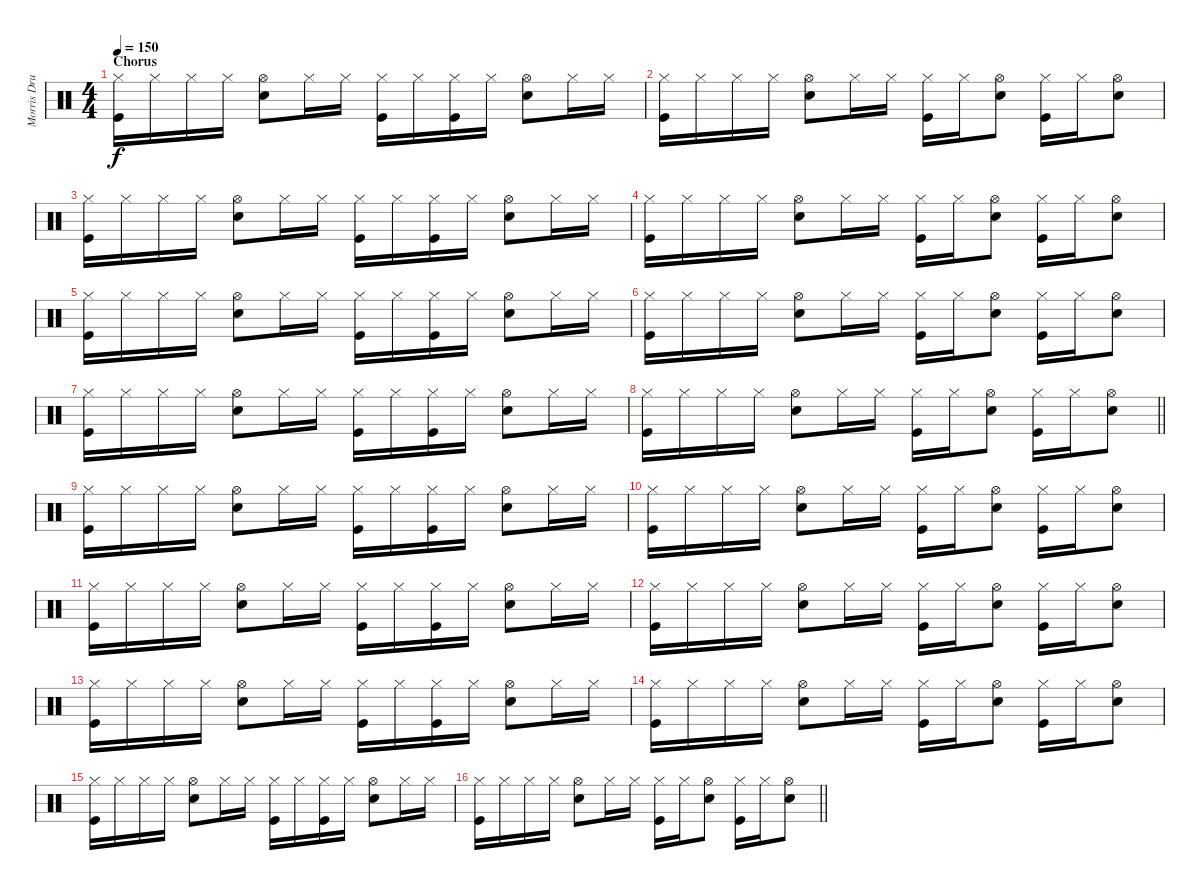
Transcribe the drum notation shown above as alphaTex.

\track ("Morris Drums" "Morris Dru") {instrument percussion}
\staff {score}
\articulation defaults
\ts (4 4)
\section ("" "Chorus")
\tempo 150
\clef neutral
\ks c
("Hi-Hat (closed)" "Kick (hit)").16{dy f} "Hi-Hat (closed)".16 "Hi-Hat (closed)".16 "Hi-Hat (closed)".16 ("Hi-Hat (open)" "Snare (hit) 2").8 "Hi-Hat (closed)".16 "Hi-Hat (closed)".16 ("Hi-Hat (closed)" "Kick (hit)").16 "Hi-Hat (closed)".16 ("Hi-Hat (closed)" "Kick (hit)").16 "Hi-Hat (closed)".16 ("Hi-Hat (open)" "Snare (hit) 2").8 "Hi-Hat (closed)".16 "Hi-Hat (closed)".16 |
("Hi-Hat (closed)" "Kick (hit)").16 "Hi-Hat (closed)".16 "Hi-Hat (closed)".16 "Hi-Hat (closed)".16 ("Hi-Hat (open)" "Snare (hit) 2").8 "Hi-Hat (closed)".16 "Hi-Hat (closed)".16 ("Hi-Hat (closed)" "Kick (hit)").16 "Hi-Hat (closed)".16 ("Hi-Hat (open)" "Snare (hit) 2").8 ("Hi-Hat (closed)" "Kick (hit)").16 "Hi-Hat (closed)".16 ("Hi-Hat (open)" "Snare (hit) 2").8 |
("Hi-Hat (closed)" "Kick (hit)").16 "Hi-Hat (closed)".16 "Hi-Hat (closed)".16 "Hi-Hat (closed)".16 ("Hi-Hat (open)" "Snare (hit) 2").8 "Hi-Hat (closed)".16 "Hi-Hat (closed)".16 ("Hi-Hat (closed)" "Kick (hit)").16 "Hi-Hat (closed)".16 ("Hi-Hat (closed)" "Kick (hit)").16 "Hi-Hat (closed)".16 ("Hi-Hat (open)" "Snare (hit) 2").8 "Hi-Hat (closed)".16 "Hi-Hat (closed)".16 |
("Hi-Hat (closed)" "Kick (hit)").16 "Hi-Hat (closed)".16 "Hi-Hat (closed)".16 "Hi-Hat (closed)".16 ("Hi-Hat (open)" "Snare (hit) 2").8 "Hi-Hat (closed)".16 "Hi-Hat (closed)".16 ("Hi-Hat (closed)" "Kick (hit)").16 "Hi-Hat (closed)".16 ("Hi-Hat (open)" "Snare (hit) 2").8 ("Hi-Hat (closed)" "Kick (hit)").16 "Hi-Hat (closed)".16 ("Hi-Hat (open)" "Snare (hit) 2").8 |
("Hi-Hat (closed)" "Kick (hit)").16 "Hi-Hat (closed)".16 "Hi-Hat (closed)".16 "Hi-Hat (closed)".16 ("Hi-Hat (open)" "Snare (hit) 2").8 "Hi-Hat (closed)".16 "Hi-Hat (closed)".16 ("Hi-Hat (closed)" "Kick (hit)").16 "Hi-Hat (closed)".16 ("Hi-Hat (closed)" "Kick (hit)").16 "Hi-Hat (closed)".16 ("Hi-Hat (open)" "Snare (hit) 2").8 "Hi-Hat (closed)".16 "Hi-Hat (closed)".16 |
("Hi-Hat (closed)" "Kick (hit)").16 "Hi-Hat (closed)".16 "Hi-Hat (closed)".16 "Hi-Hat (closed)".16 ("Hi-Hat (open)" "Snare (hit) 2").8 "Hi-Hat (closed)".16 "Hi-Hat (closed)".16 ("Hi-Hat (closed)" "Kick (hit)").16 "Hi-Hat (closed)".16 ("Hi-Hat (open)" "Snare (hit) 2").8 ("Hi-Hat (closed)" "Kick (hit)").16 "Hi-Hat (closed)".16 ("Hi-Hat (open)" "Snare (hit) 2").8 |
("Hi-Hat (closed)" "Kick (hit)").16 "Hi-Hat (closed)".16 "Hi-Hat (closed)".16 "Hi-Hat (closed)".16 ("Hi-Hat (open)" "Snare (hit) 2").8 "Hi-Hat (closed)".16 "Hi-Hat (closed)".16 ("Hi-Hat (closed)" "Kick (hit)").16 "Hi-Hat (closed)".16 ("Hi-Hat (closed)" "Kick (hit)").16 "Hi-Hat (closed)".16 ("Hi-Hat (open)" "Snare (hit) 2").8 "Hi-Hat (closed)".16 "Hi-Hat (closed)".16 |
\barLineRight lightlight
("Hi-Hat (closed)" "Kick (hit)").16 "Hi-Hat (closed)".16 "Hi-Hat (closed)".16 "Hi-Hat (closed)".16 ("Hi-Hat (open)" "Snare (hit) 2").8 "Hi-Hat (closed)".16 "Hi-Hat (closed)".16 ("Hi-Hat (closed)" "Kick (hit)").16 "Hi-Hat (closed)".16 ("Hi-Hat (open)" "Snare (hit) 2").8 ("Hi-Hat (closed)" "Kick (hit)").16 "Hi-Hat (closed)".16 ("Hi-Hat (open)" "Snare (hit) 2").8 |
("Hi-Hat (closed)" "Kick (hit)").16 "Hi-Hat (closed)".16 "Hi-Hat (closed)".16 "Hi-Hat (closed)".16 ("Hi-Hat (open)" "Snare (hit) 2").8 "Hi-Hat (closed)".16 "Hi-Hat (closed)".16 ("Hi-Hat (closed)" "Kick (hit)").16 "Hi-Hat (closed)".16 ("Hi-Hat (closed)" "Kick (hit)").16 "Hi-Hat (closed)".16 ("Hi-Hat (open)" "Snare (hit) 2").8 "Hi-Hat (closed)".16 "Hi-Hat (closed)".16 |
("Hi-Hat (closed)" "Kick (hit)").16 "Hi-Hat (closed)".16 "Hi-Hat (closed)".16 "Hi-Hat (closed)".16 ("Hi-Hat (open)" "Snare (hit) 2").8 "Hi-Hat (closed)".16 "Hi-Hat (closed)".16 ("Hi-Hat (closed)" "Kick (hit)").16 "Hi-Hat (closed)".16 ("Hi-Hat (open)" "Snare (hit) 2").8 ("Hi-Hat (closed)" "Kick (hit)").16 "Hi-Hat (closed)".16 ("Hi-Hat (open)" "Snare (hit) 2").8 |
("Hi-Hat (closed)" "Kick (hit)").16 "Hi-Hat (closed)".16 "Hi-Hat (closed)".16 "Hi-Hat (closed)".16 ("Hi-Hat (open)" "Snare (hit) 2").8 "Hi-Hat (closed)".16 "Hi-Hat (closed)".16 ("Hi-Hat (closed)" "Kick (hit)").16 "Hi-Hat (closed)".16 ("Hi-Hat (closed)" "Kick (hit)").16 "Hi-Hat (closed)".16 ("Hi-Hat (open)" "Snare (hit) 2").8 "Hi-Hat (closed)".16 "Hi-Hat (closed)".16 |
("Hi-Hat (closed)" "Kick (hit)").16 "Hi-Hat (closed)".16 "Hi-Hat (closed)".16 "Hi-Hat (closed)".16 ("Hi-Hat (open)" "Snare (hit) 2").8 "Hi-Hat (closed)".16 "Hi-Hat (closed)".16 ("Hi-Hat (closed)" "Kick (hit)").16 "Hi-Hat (closed)".16 ("Hi-Hat (open)" "Snare (hit) 2").8 ("Hi-Hat (closed)" "Kick (hit)").16 "Hi-Hat (closed)".16 ("Hi-Hat (open)" "Snare (hit) 2").8 |
("Hi-Hat (closed)" "Kick (hit)").16 "Hi-Hat (closed)".16 "Hi-Hat (closed)".16 "Hi-Hat (closed)".16 ("Hi-Hat (open)" "Snare (hit) 2").8 "Hi-Hat (closed)".16 "Hi-Hat (closed)".16 ("Hi-Hat (closed)" "Kick (hit)").16 "Hi-Hat (closed)".16 ("Hi-Hat (closed)" "Kick (hit)").16 "Hi-Hat (closed)".16 ("Hi-Hat (open)" "Snare (hit) 2").8 "Hi-Hat (closed)".16 "Hi-Hat (closed)".16 |
("Hi-Hat (closed)" "Kick (hit)").16 "Hi-Hat (closed)".16 "Hi-Hat (closed)".16 "Hi-Hat (closed)".16 ("Hi-Hat (open)" "Snare (hit) 2").8 "Hi-Hat (closed)".16 "Hi-Hat (closed)".16 ("Hi-Hat (closed)" "Kick (hit)").16 "Hi-Hat (closed)".16 ("Hi-Hat (open)" "Snare (hit) 2").8 ("Hi-Hat (closed)" "Kick (hit)").16 "Hi-Hat (closed)".16 ("Hi-Hat (open)" "Snare (hit) 2").8 |
("Hi-Hat (closed)" "Kick (hit)").16 "Hi-Hat (closed)".16 "Hi-Hat (closed)".16 "Hi-Hat (closed)".16 ("Hi-Hat (open)" "Snare (hit) 2").8 "Hi-Hat (closed)".16 "Hi-Hat (closed)".16 ("Hi-Hat (closed)" "Kick (hit)").16 "Hi-Hat (closed)".16 ("Hi-Hat (closed)" "Kick (hit)").16 "Hi-Hat (closed)".16 ("Hi-Hat (open)" "Snare (hit) 2").8 "Hi-Hat (closed)".16 "Hi-Hat (closed)".16 |
\barLineRight lightlight
("Hi-Hat (closed)" "Kick (hit)").16 "Hi-Hat (closed)".16 "Hi-Hat (closed)".16 "Hi-Hat (closed)".16 ("Hi-Hat (open)" "Snare (hit) 2").8 "Hi-Hat (closed)".16 "Hi-Hat (closed)".16 ("Hi-Hat (closed)" "Kick (hit)").16 "Hi-Hat (closed)".16 ("Hi-Hat (open)" "Snare (hit) 2").8 ("Hi-Hat (closed)" "Kick (hit)").16 "Hi-Hat (closed)".16 ("Hi-Hat (open)" "Snare (hit) 2").8
